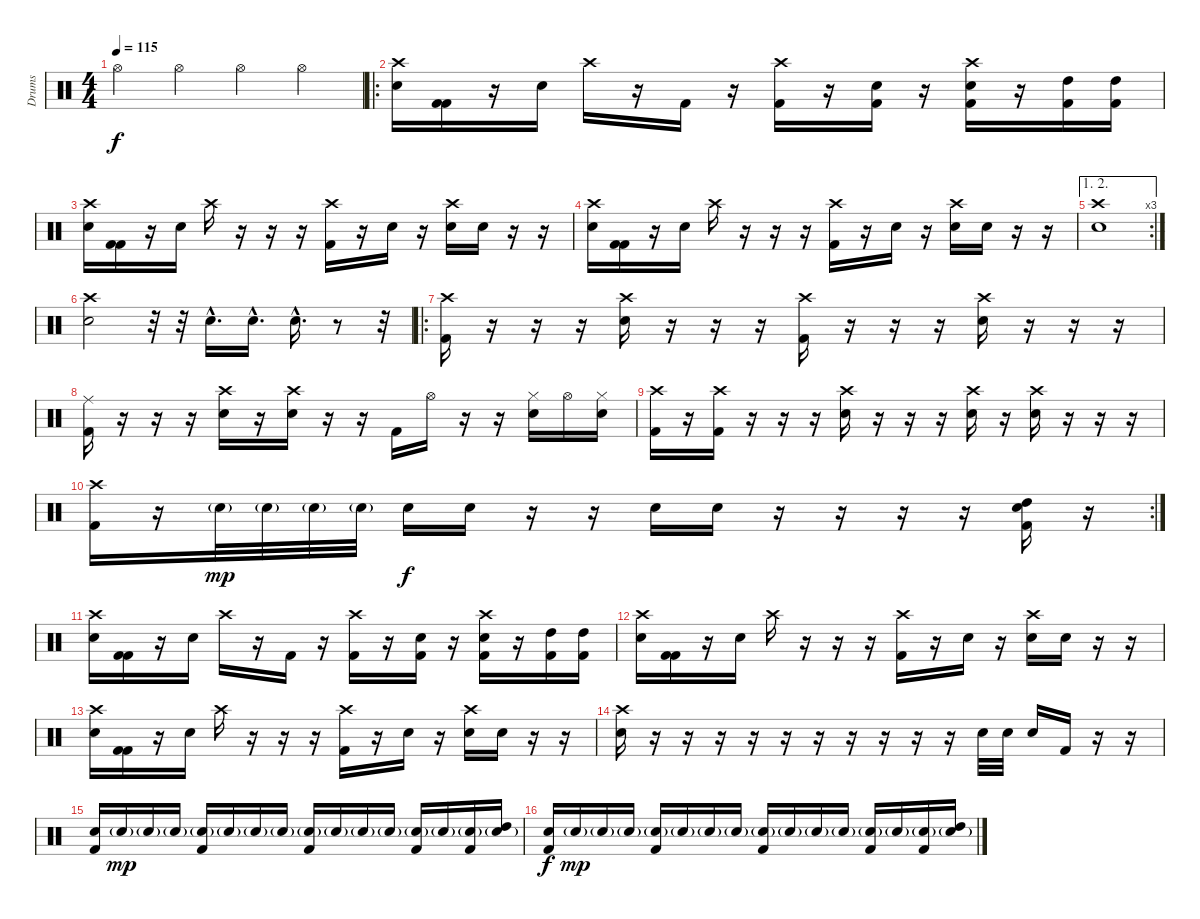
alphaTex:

\track ("Drums" "Drums") {instrument percussion}
\staff {score}
\articulation defaults
\ts (4 4)
\tempo 115
\clef neutral
\ks c "Hi-Hat (open)".4{dy f} "Hi-Hat (open)".4 "Hi-Hat (open)".4 "Hi-Hat (open)".4
|
\ro
("Crash high (hit)" "Electric Snare (hit)").16 ("Kick (hit) 2" "Kick (hit) 2").16 r.16 "Electric Snare (hit)".16 "Crash high (hit)".16 r.16 "Kick (hit) 2".16 r.16 ("Crash high (hit)" "Kick (hit) 2").16 r.16 ("Electric Snare (hit)" "Kick (hit) 2").16 r.16 ("Crash high (hit)" "Electric Snare (hit)" "Kick (hit) 2").16 r.16 ("High Tom (hit)" "Kick (hit) 2").16 ("High Tom (hit)" "Kick (hit) 2").16 |
("Crash high (hit)" "Electric Snare (hit)").16 ("Kick (hit) 2" "Kick (hit) 2").16 r.16 "Electric Snare (hit)".16 "Crash high (hit)".16 r.16 r.16 r.16 ("Crash high (hit)" "Kick (hit) 2").16 r.16 "Electric Snare (hit)".16 r.16 ("Crash high (hit)" "Electric Snare (hit)").16 "Electric Snare (hit)".16 r.16 r.16 |
("Crash high (hit)" "Electric Snare (hit)").16 ("Kick (hit) 2" "Kick (hit) 2").16 r.16 "Electric Snare (hit)".16 "Crash high (hit)".16 r.16 r.16 r.16 ("Crash high (hit)" "Kick (hit) 2").16 r.16 "Electric Snare (hit)".16 r.16 ("Crash high (hit)" "Electric Snare (hit)").16 "Electric Snare (hit)".16 r.16 r.16 |
\ae (1 2)
\rc 3
("Crash high (hit)" "Electric Snare (hit)").1 |
("Crash high (hit)" "Electric Snare (hit)").2 r.32 r.32 "Electric Snare (hit)"{hac}.16{d} "Electric Snare (hit)"{hac}.16{d} "Electric Snare (hit)"{hac}.16{d} r.8 r.32 |
\ro
("Crash high (hit)" "Kick (hit) 2").16 r.16 r.16 r.16 ("Crash high (hit)" "Electric Snare (hit)").16 r.16 r.16 r.16 ("Crash high (hit)" "Kick (hit) 2").16 r.16 r.16 r.16 ("Crash high (hit)" "Electric Snare (hit)").16 r.16 r.16 r.16 |
("Ride (middle)" "Kick (hit) 2").16 r.16 r.16 r.16 ("Crash high (hit)" "Electric Snare (hit)").16 r.16 ("Crash high (hit)" "Electric Snare (hit)").16 r.16 r.16 "Kick (hit) 2".16 "Hi-Hat (open)".16 r.16 r.16 ("Hi-Hat (closed)" "Electric Snare (hit)").16 "Hi-Hat (open)".16 ("Hi-Hat (closed)" "Electric Snare (hit)").16 |
("Crash high (hit)" "Kick (hit) 2").16 r.16 ("Crash high (hit)" "Kick (hit) 2").16 r.16 r.16 r.16 ("Crash high (hit)" "Electric Snare (hit)").16 r.16 r.16 r.16 ("Crash high (hit)" "Electric Snare (hit)").16 r.16 ("Crash high (hit)" "Electric Snare (hit)").16 r.16 r.16 r.16 |
\rc 2
("Crash high (hit)" "Kick (hit) 2").16 r.16 "Electric Snare (hit)"{g}.32{dy mp} "Electric Snare (hit)"{g}.32 "Electric Snare (hit)"{g}.32 "Electric Snare (hit)"{g}.32 "Electric Snare (hit)".16{dy f} "Electric Snare (hit)".16 r.16 r.16 "Electric Snare (hit)".16 "Electric Snare (hit)".16 r.16 r.16 r.16 r.16 ("High Tom (hit)" "Electric Snare (hit)" "Kick (hit) 2").16 r.16 |
("Crash high (hit)" "Electric Snare (hit)").16 ("Kick (hit) 2" "Kick (hit) 2").16 r.16 "Electric Snare (hit)".16 "Crash high (hit)".16 r.16 "Kick (hit) 2".16 r.16 ("Crash high (hit)" "Kick (hit) 2").16 r.16 ("Electric Snare (hit)" "Kick (hit) 2").16 r.16 ("Crash high (hit)" "Electric Snare (hit)" "Kick (hit) 2").16 r.16 ("High Tom (hit)" "Kick (hit) 2").16 ("High Tom (hit)" "Kick (hit) 2").16 |
("Crash high (hit)" "Electric Snare (hit)").16 ("Kick (hit) 2" "Kick (hit) 2").16 r.16 "Electric Snare (hit)".16 "Crash high (hit)".16 r.16 r.16 r.16 ("Crash high (hit)" "Kick (hit) 2").16 r.16 "Electric Snare (hit)".16 r.16 ("Crash high (hit)" "Electric Snare (hit)").16 "Electric Snare (hit)".16 r.16 r.16 |
("Crash high (hit)" "Electric Snare (hit)").16 ("Kick (hit) 2" "Kick (hit) 2").16 r.16 "Electric Snare (hit)".16 "Crash high (hit)".16 r.16 r.16 r.16 ("Crash high (hit)" "Kick (hit) 2").16 r.16 "Electric Snare (hit)".16 r.16 ("Crash high (hit)" "Electric Snare (hit)").16 "Electric Snare (hit)".16 r.16 r.16 |
("Crash high (hit)" "Electric Snare (hit)").16 r.16 r.16 r.16 r.16 r.16 r.16 r.16 r.16 r.16 r.16 "Electric Snare (hit)".32 "Electric Snare (hit)".32 "Electric Snare (hit)".16 "Kick (hit) 2".16 r.16 r.16 |
("Kick (hit) 2" "Electric Snare (hit)").16 "Electric Snare (hit)"{g}.16{dy mp} "Electric Snare (hit)"{g}.16 "Electric Snare (hit)"{g}.16 ("Kick (hit) 2" "Electric Snare (hit)"{g}).16 "Electric Snare (hit)"{g}.16 "Electric Snare (hit)"{g}.16 "Electric Snare (hit)"{g}.16 ("Kick (hit) 2" "Electric Snare (hit)"{g}).16 "Electric Snare (hit)"{g}.16 "Electric Snare (hit)"{g}.16 "Electric Snare (hit)"{g}.16 ("Kick (hit) 2" "Electric Snare (hit)"{g}).16 "Electric Snare (hit)"{g}.16 ("Kick (hit) 2" "Electric Snare (hit)"{g}).16 ("High Tom (hit)" "Electric Snare (hit)"{g}).16 |
("Kick (hit) 2" "Electric Snare (hit)").16{dy f} "Electric Snare (hit)"{g}.16{dy mp} "Electric Snare (hit)"{g}.16 "Electric Snare (hit)"{g}.16 ("Kick (hit) 2" "Electric Snare (hit)"{g}).16 "Electric Snare (hit)"{g}.16 "Electric Snare (hit)"{g}.16 "Electric Snare (hit)"{g}.16 ("Kick (hit) 2" "Electric Snare (hit)"{g}).16 "Electric Snare (hit)"{g}.16 "Electric Snare (hit)"{g}.16 "Electric Snare (hit)"{g}.16 ("Kick (hit) 2" "Electric Snare (hit)"{g}).16 "Electric Snare (hit)"{g}.16 ("Kick (hit) 2" "Electric Snare (hit)"{g}).16 ("High Tom (hit)" "Electric Snare (hit)"{g}).16
